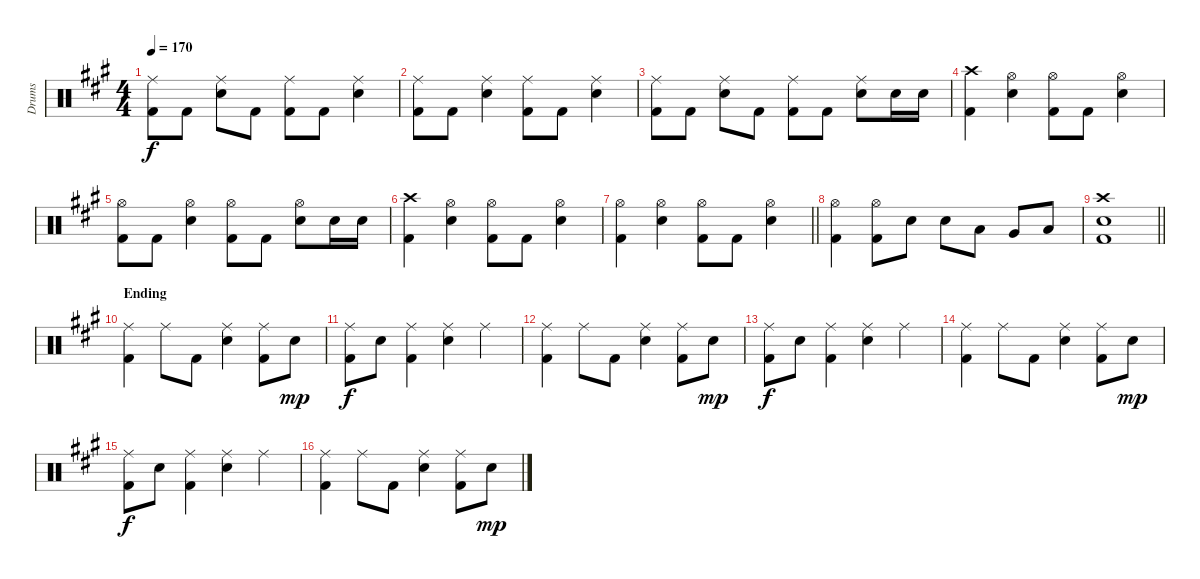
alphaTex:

\track ("Drums" "Drums") {instrument percussion}
\staff {score}
\articulation defaults
\ts (4 4)
\tempo 170
\clef neutral
\ks f#minor
("Ride (middle)" "Kick (hit) 2").8{dy f} "Kick (hit) 2".8 ("Ride (middle)" "Snare (hit) 2").8 "Kick (hit) 2".8 ("Ride (middle)" "Kick (hit) 2").8 "Kick (hit) 2".8 ("Ride (middle)" "Snare (hit) 2").4 |
("Ride (middle)" "Kick (hit) 2").8 "Kick (hit) 2".8 ("Ride (middle)" "Snare (hit) 2").4 ("Ride (middle)" "Kick (hit) 2").8 "Kick (hit) 2".8 ("Ride (middle)" "Snare (hit) 2").4 |
("Ride (middle)" "Kick (hit) 2").8 "Kick (hit) 2".8 ("Ride (middle)" "Snare (hit) 2").8 "Kick (hit) 2".8 ("Ride (middle)" "Kick (hit) 2").8 "Kick (hit) 2".8 ("Ride (middle)" "Snare (hit) 2").8 "Snare (hit) 2".16 "Snare (hit) 2".16 |
("Crash high (hit)" "Kick (hit) 2").4 ("Hi-Hat (open)" "Snare (hit) 2").4 ("Hi-Hat (open)" "Kick (hit) 2").8 "Kick (hit) 2".8 ("Hi-Hat (open)" "Snare (hit) 2").4 |
("Hi-Hat (open)" "Kick (hit) 2").8 "Kick (hit) 2".8 ("Hi-Hat (open)" "Snare (hit) 2").4 ("Hi-Hat (open)" "Kick (hit) 2").8 "Kick (hit) 2".8 ("Hi-Hat (open)" "Snare (hit) 2").8 "Snare (hit) 2".16 "Snare (hit) 2".16 |
("Crash high (hit)" "Kick (hit) 2").4 ("Hi-Hat (open)" "Snare (hit) 2").4 ("Hi-Hat (open)" "Kick (hit) 2").8 "Kick (hit) 2".8 ("Hi-Hat (open)" "Snare (hit) 2").4 |
\barLineRight lightlight
("Hi-Hat (open)" "Kick (hit) 2").4 ("Hi-Hat (open)" "Snare (hit) 2").4 ("Hi-Hat (open)" "Kick (hit) 2").8 "Kick (hit) 2".8 ("Hi-Hat (open)" "Snare (hit) 2").4 |
("Hi-Hat (open)" "Kick (hit) 2").4 ("Hi-Hat (open)" "Kick (hit) 2").8 "Snare (hit) 2".8 "Snare (hit) 2".8 "Low Tom (hit)".8 "Very Low Tom (hit)".8 "Low Floor Tom (hit)".8 |
\barLineRight lightlight
("Crash high (hit)" "Snare (hit) 2" "Kick (hit) 2").1 |
\section ("" "Ending")
("Ride (middle)" "Kick (hit) 2").4 "Ride (middle)".8 "Kick (hit) 2".8 ("Ride (middle)" "Snare (hit) 2").4 ("Ride (middle)" "Kick (hit) 2").8 "Snare (hit) 2".8{dy mp} |
("Ride (middle)" "Kick (hit) 2").8{dy f} "Snare (hit) 2".8 ("Ride (middle)" "Kick (hit) 2").4 ("Ride (middle)" "Snare (hit) 2").4 "Ride (middle)".4 |
("Ride (middle)" "Kick (hit) 2").4 "Ride (middle)".8 "Kick (hit) 2".8 ("Ride (middle)" "Snare (hit) 2").4 ("Ride (middle)" "Kick (hit) 2").8 "Snare (hit) 2".8{dy mp} |
("Ride (middle)" "Kick (hit) 2").8{dy f} "Snare (hit) 2".8 ("Ride (middle)" "Kick (hit) 2").4 ("Ride (middle)" "Snare (hit) 2").4 "Ride (middle)".4 |
("Ride (middle)" "Kick (hit) 2").4 "Ride (middle)".8 "Kick (hit) 2".8 ("Ride (middle)" "Snare (hit) 2").4 ("Ride (middle)" "Kick (hit) 2").8 "Snare (hit) 2".8{dy mp} |
("Ride (middle)" "Kick (hit) 2").8{dy f} "Snare (hit) 2".8 ("Ride (middle)" "Kick (hit) 2").4 ("Ride (middle)" "Snare (hit) 2").4 "Ride (middle)".4 |
("Ride (middle)" "Kick (hit) 2").4 "Ride (middle)".8 "Kick (hit) 2".8 ("Ride (middle)" "Snare (hit) 2").4 ("Ride (middle)" "Kick (hit) 2").8 "Snare (hit) 2".8{dy mp}
